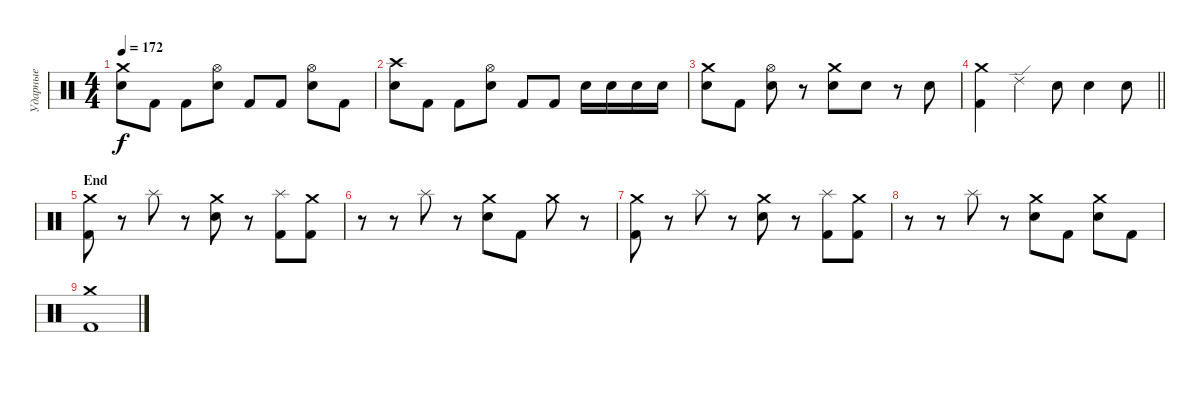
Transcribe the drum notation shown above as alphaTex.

\track ("Ударные" "Ударные") {instrument percussion}
\staff {score}
\articulation defaults
\ts (4 4)
\tempo 172
\clef neutral
\ks c
("Crash medium (hit)" "Electric Snare (hit)").8{dy f} "Kick (hit) 2".8 "Kick (hit) 2".8 ("Hi-Hat (open)" "Electric Snare (hit)").8 "Kick (hit) 2".8 "Kick (hit) 2".8 ("Hi-Hat (open)" "Electric Snare (hit)").8 "Kick (hit) 2".8 |
("Crash high (hit)" "Electric Snare (hit)").8 "Kick (hit) 2".8 "Kick (hit) 2".8 ("Hi-Hat (open)" "Electric Snare (hit)").8 "Kick (hit) 2".8 "Kick (hit) 2".8 "Electric Snare (hit)".16 "Electric Snare (hit)".16 "Electric Snare (hit)".16 "Electric Snare (hit)".16 |
("Crash medium (hit)" "Electric Snare (hit)").8 "Kick (hit) 2".8 ("Hi-Hat (open)" "Electric Snare (hit)").8 r.8 ("Crash medium (hit)" "Electric Snare (hit)").8 "Electric Snare (hit)".8 r.8 "Electric Snare (hit)".8 |
\barLineRight lightlight
("Crash medium (hit)" "Kick (hit) 2").4 "Ride (edge) 2".4 "Electric Snare (hit)".8 "Electric Snare (hit)".4 "Electric Snare (hit)".8 |
\section ("" "End")
("Crash medium (hit)" "Kick (hit) 2").8 r.8 "Splash (hit)".8 r.8 ("Crash medium (hit)" "Electric Snare (hit)").8 r.8 ("Splash (hit)" "Kick (hit) 2").8 ("Crash medium (hit)" "Kick (hit) 2").8 |
r.8 r.8 "Splash (hit)".8 r.8 ("Crash medium (hit)" "Electric Snare (hit)").8 "Kick (hit) 2".8 "Crash medium (hit)".8 r.8 |
("Crash medium (hit)" "Kick (hit) 2").8 r.8 "Splash (hit)".8 r.8 ("Crash medium (hit)" "Electric Snare (hit)").8 r.8 ("Splash (hit)" "Kick (hit) 2").8 ("Crash medium (hit)" "Kick (hit) 2").8 |
r.8 r.8 "Splash (hit)".8 r.8 ("Crash medium (hit)" "Electric Snare (hit)").8 "Kick (hit) 2".8 ("Crash medium (hit)" "Electric Snare (hit)").8 "Kick (hit) 2".8 |
("Crash medium (hit)" "Kick (hit) 2").1
